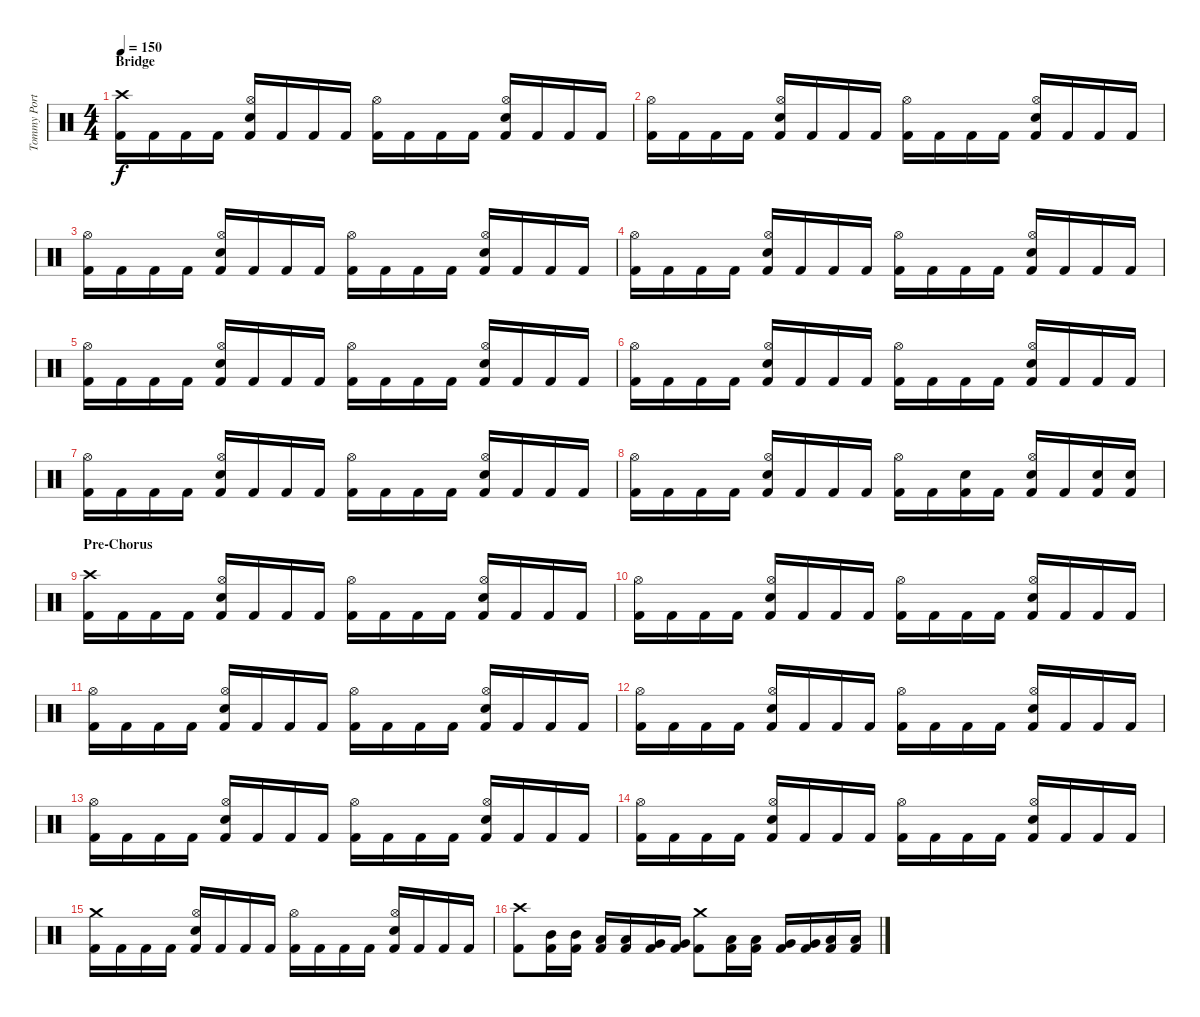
\track ("Tommy Portino - Drums" "Tommy Port") {instrument percussion}
\staff {score}
\articulation defaults
\ts (4 4)
\section ("" "Bridge")
\tempo 150
\clef neutral
\ks c
("Crash high (hit)" "Kick (hit) 2").16{dy f} "Kick (hit) 2".16 "Kick (hit) 2".16 "Kick (hit) 2".16 ("Hi-Hat (open)" "Electric Snare (hit)" "Kick (hit) 2").16 "Kick (hit) 2".16 "Kick (hit) 2".16 "Kick (hit) 2".16 ("Hi-Hat (open)" "Kick (hit) 2").16 "Kick (hit) 2".16 "Kick (hit) 2".16 "Kick (hit) 2".16 ("Hi-Hat (open)" "Electric Snare (hit)" "Kick (hit) 2").16 "Kick (hit) 2".16 "Kick (hit) 2".16 "Kick (hit) 2".16 |
("Hi-Hat (open)" "Kick (hit) 2").16 "Kick (hit) 2".16 "Kick (hit) 2".16 "Kick (hit) 2".16 ("Hi-Hat (open)" "Electric Snare (hit)" "Kick (hit) 2").16 "Kick (hit) 2".16 "Kick (hit) 2".16 "Kick (hit) 2".16 ("Hi-Hat (open)" "Kick (hit) 2").16 "Kick (hit) 2".16 "Kick (hit) 2".16 "Kick (hit) 2".16 ("Hi-Hat (open)" "Electric Snare (hit)" "Kick (hit) 2").16 "Kick (hit) 2".16 "Kick (hit) 2".16 "Kick (hit) 2".16 |
("Hi-Hat (open)" "Kick (hit) 2").16 "Kick (hit) 2".16 "Kick (hit) 2".16 "Kick (hit) 2".16 ("Hi-Hat (open)" "Electric Snare (hit)" "Kick (hit) 2").16 "Kick (hit) 2".16 "Kick (hit) 2".16 "Kick (hit) 2".16 ("Hi-Hat (open)" "Kick (hit) 2").16 "Kick (hit) 2".16 "Kick (hit) 2".16 "Kick (hit) 2".16 ("Hi-Hat (open)" "Electric Snare (hit)" "Kick (hit) 2").16 "Kick (hit) 2".16 "Kick (hit) 2".16 "Kick (hit) 2".16 |
("Hi-Hat (open)" "Kick (hit) 2").16 "Kick (hit) 2".16 "Kick (hit) 2".16 "Kick (hit) 2".16 ("Hi-Hat (open)" "Electric Snare (hit)" "Kick (hit) 2").16 "Kick (hit) 2".16 "Kick (hit) 2".16 "Kick (hit) 2".16 ("Hi-Hat (open)" "Kick (hit) 2").16 "Kick (hit) 2".16 "Kick (hit) 2".16 "Kick (hit) 2".16 ("Hi-Hat (open)" "Electric Snare (hit)" "Kick (hit) 2").16 "Kick (hit) 2".16 "Kick (hit) 2".16 "Kick (hit) 2".16 |
("Hi-Hat (open)" "Kick (hit) 2").16 "Kick (hit) 2".16 "Kick (hit) 2".16 "Kick (hit) 2".16 ("Hi-Hat (open)" "Electric Snare (hit)" "Kick (hit) 2").16 "Kick (hit) 2".16 "Kick (hit) 2".16 "Kick (hit) 2".16 ("Hi-Hat (open)" "Kick (hit) 2").16 "Kick (hit) 2".16 "Kick (hit) 2".16 "Kick (hit) 2".16 ("Hi-Hat (open)" "Electric Snare (hit)" "Kick (hit) 2").16 "Kick (hit) 2".16 "Kick (hit) 2".16 "Kick (hit) 2".16 |
("Hi-Hat (open)" "Kick (hit) 2").16 "Kick (hit) 2".16 "Kick (hit) 2".16 "Kick (hit) 2".16 ("Hi-Hat (open)" "Electric Snare (hit)" "Kick (hit) 2").16 "Kick (hit) 2".16 "Kick (hit) 2".16 "Kick (hit) 2".16 ("Hi-Hat (open)" "Kick (hit) 2").16 "Kick (hit) 2".16 "Kick (hit) 2".16 "Kick (hit) 2".16 ("Hi-Hat (open)" "Electric Snare (hit)" "Kick (hit) 2").16 "Kick (hit) 2".16 "Kick (hit) 2".16 "Kick (hit) 2".16 |
("Hi-Hat (open)" "Kick (hit) 2").16 "Kick (hit) 2".16 "Kick (hit) 2".16 "Kick (hit) 2".16 ("Hi-Hat (open)" "Electric Snare (hit)" "Kick (hit) 2").16 "Kick (hit) 2".16 "Kick (hit) 2".16 "Kick (hit) 2".16 ("Hi-Hat (open)" "Kick (hit) 2").16 "Kick (hit) 2".16 "Kick (hit) 2".16 "Kick (hit) 2".16 ("Hi-Hat (open)" "Electric Snare (hit)" "Kick (hit) 2").16 "Kick (hit) 2".16 "Kick (hit) 2".16 "Kick (hit) 2".16 |
("Hi-Hat (open)" "Kick (hit) 2").16 "Kick (hit) 2".16 "Kick (hit) 2".16 "Kick (hit) 2".16 ("Hi-Hat (open)" "Electric Snare (hit)" "Kick (hit) 2").16 "Kick (hit) 2".16 "Kick (hit) 2".16 "Kick (hit) 2".16 ("Hi-Hat (open)" "Kick (hit) 2").16 "Kick (hit) 2".16 ("Electric Snare (hit)" "Kick (hit) 2").16 "Kick (hit) 2".16 ("Hi-Hat (open)" "Electric Snare (hit)" "Kick (hit) 2").16 "Kick (hit) 2".16 ("Electric Snare (hit)" "Kick (hit) 2").16 ("Electric Snare (hit)" "Kick (hit) 2").16 |
\section ("" "Pre-Chorus")
("Crash high (hit)" "Kick (hit) 2").16 "Kick (hit) 2".16 "Kick (hit) 2".16 "Kick (hit) 2".16 ("Hi-Hat (open)" "Electric Snare (hit)" "Kick (hit) 2").16 "Kick (hit) 2".16 "Kick (hit) 2".16 "Kick (hit) 2".16 ("Hi-Hat (open)" "Kick (hit) 2").16 "Kick (hit) 2".16 "Kick (hit) 2".16 "Kick (hit) 2".16 ("Hi-Hat (open)" "Electric Snare (hit)" "Kick (hit) 2").16 "Kick (hit) 2".16 "Kick (hit) 2".16 "Kick (hit) 2".16 |
("Hi-Hat (open)" "Kick (hit) 2").16 "Kick (hit) 2".16 "Kick (hit) 2".16 "Kick (hit) 2".16 ("Hi-Hat (open)" "Electric Snare (hit)" "Kick (hit) 2").16 "Kick (hit) 2".16 "Kick (hit) 2".16 "Kick (hit) 2".16 ("Hi-Hat (open)" "Kick (hit) 2").16 "Kick (hit) 2".16 "Kick (hit) 2".16 "Kick (hit) 2".16 ("Hi-Hat (open)" "Electric Snare (hit)" "Kick (hit) 2").16 "Kick (hit) 2".16 "Kick (hit) 2".16 "Kick (hit) 2".16 |
("Hi-Hat (open)" "Kick (hit) 2").16 "Kick (hit) 2".16 "Kick (hit) 2".16 "Kick (hit) 2".16 ("Hi-Hat (open)" "Electric Snare (hit)" "Kick (hit) 2").16 "Kick (hit) 2".16 "Kick (hit) 2".16 "Kick (hit) 2".16 ("Hi-Hat (open)" "Kick (hit) 2").16 "Kick (hit) 2".16 "Kick (hit) 2".16 "Kick (hit) 2".16 ("Hi-Hat (open)" "Electric Snare (hit)" "Kick (hit) 2").16 "Kick (hit) 2".16 "Kick (hit) 2".16 "Kick (hit) 2".16 |
("Hi-Hat (open)" "Kick (hit) 2").16 "Kick (hit) 2".16 "Kick (hit) 2".16 "Kick (hit) 2".16 ("Hi-Hat (open)" "Electric Snare (hit)" "Kick (hit) 2").16 "Kick (hit) 2".16 "Kick (hit) 2".16 "Kick (hit) 2".16 ("Hi-Hat (open)" "Kick (hit) 2").16 "Kick (hit) 2".16 "Kick (hit) 2".16 "Kick (hit) 2".16 ("Hi-Hat (open)" "Electric Snare (hit)" "Kick (hit) 2").16 "Kick (hit) 2".16 "Kick (hit) 2".16 "Kick (hit) 2".16 |
("Hi-Hat (open)" "Kick (hit) 2").16 "Kick (hit) 2".16 "Kick (hit) 2".16 "Kick (hit) 2".16 ("Hi-Hat (open)" "Electric Snare (hit)" "Kick (hit) 2").16 "Kick (hit) 2".16 "Kick (hit) 2".16 "Kick (hit) 2".16 ("Hi-Hat (open)" "Kick (hit) 2").16 "Kick (hit) 2".16 "Kick (hit) 2".16 "Kick (hit) 2".16 ("Hi-Hat (open)" "Electric Snare (hit)" "Kick (hit) 2").16 "Kick (hit) 2".16 "Kick (hit) 2".16 "Kick (hit) 2".16 |
("Hi-Hat (open)" "Kick (hit) 2").16 "Kick (hit) 2".16 "Kick (hit) 2".16 "Kick (hit) 2".16 ("Hi-Hat (open)" "Electric Snare (hit)" "Kick (hit) 2").16 "Kick (hit) 2".16 "Kick (hit) 2".16 "Kick (hit) 2".16 ("Hi-Hat (open)" "Kick (hit) 2").16 "Kick (hit) 2".16 "Kick (hit) 2".16 "Kick (hit) 2".16 ("Hi-Hat (open)" "Electric Snare (hit)" "Kick (hit) 2").16 "Kick (hit) 2".16 "Kick (hit) 2".16 "Kick (hit) 2".16 |
("Crash medium (hit)" "Kick (hit) 2").16 "Kick (hit) 2".16 "Kick (hit) 2".16 "Kick (hit) 2".16 ("Hi-Hat (open)" "Electric Snare (hit)" "Kick (hit) 2").16 "Kick (hit) 2".16 "Kick (hit) 2".16 "Kick (hit) 2".16 ("Hi-Hat (open)" "Kick (hit) 2").16 "Kick (hit) 2".16 "Kick (hit) 2".16 "Kick (hit) 2".16 ("Hi-Hat (open)" "Electric Snare (hit)" "Kick (hit) 2").16 "Kick (hit) 2".16 "Kick (hit) 2".16 "Kick (hit) 2".16 |
("Crash high (hit)" "Kick (hit) 2").8 ("Mid Tom (hit)" "Kick (hit) 2").16 ("Mid Tom (hit)" "Kick (hit) 2").16 ("Low Tom (hit)" "Kick (hit) 2").16 ("Low Tom (hit)" "Kick (hit) 2").16 ("Very Low Tom (hit)" "Kick (hit) 2").16 ("Very Low Tom (hit)" "Kick (hit) 2").16 ("Crash medium (hit)" "Kick (hit) 2").8 ("Low Tom (hit)" "Kick (hit) 2").16 ("Low Tom (hit)" "Kick (hit) 2").16 ("Very Low Tom (hit)" "Kick (hit) 2").16 ("Very Low Tom (hit)" "Kick (hit) 2").16 ("Low Floor Tom (hit)" "Kick (hit) 2").16 ("Low Floor Tom (hit)" "Kick (hit) 2").16
